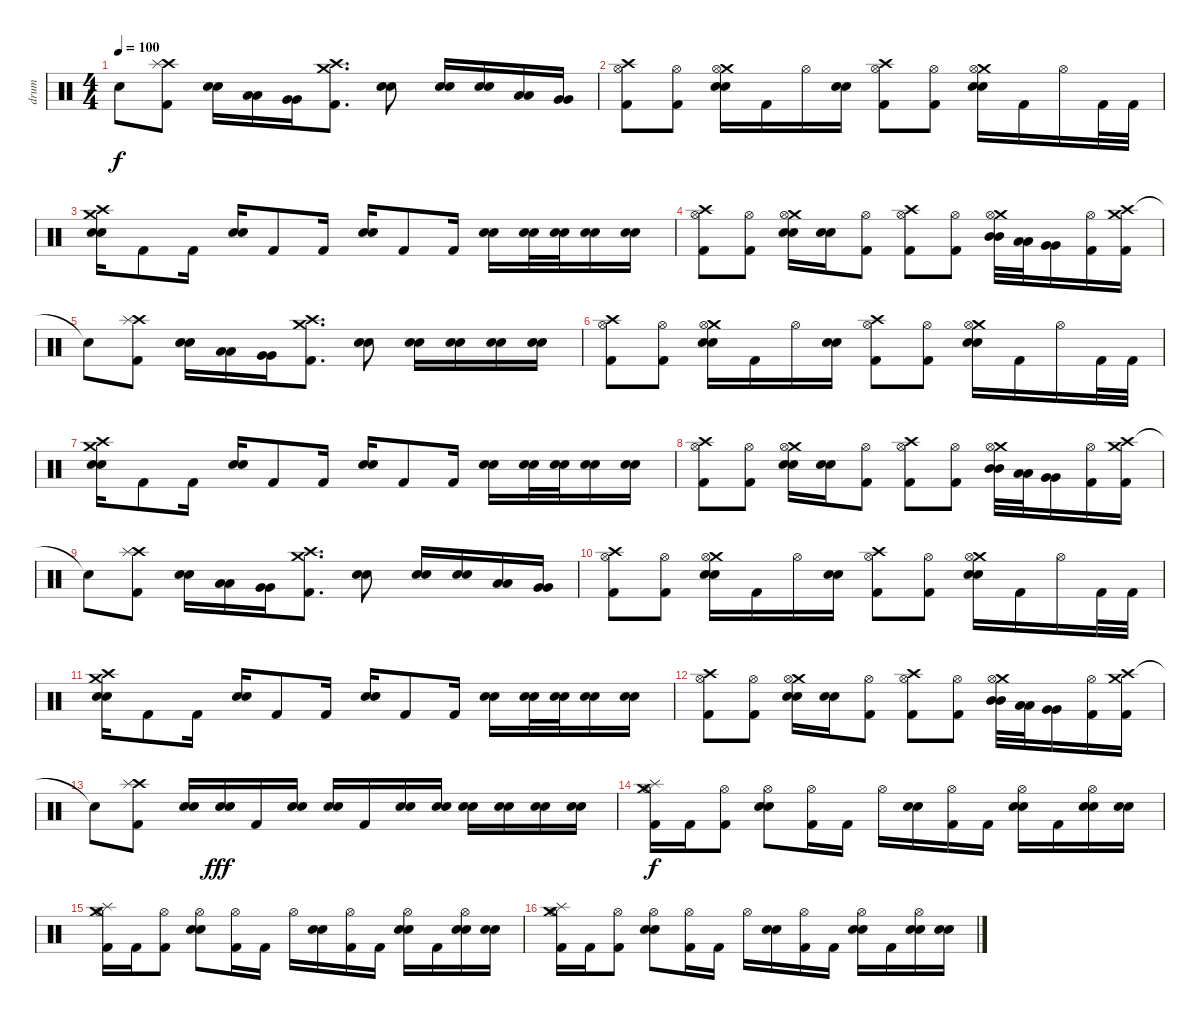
\track ("drum" "drum") {instrument percussion}
\staff {score}
\articulation defaults
\ts (4 4)
\tempo 100
\clef neutral
\ks c "Snare (hit)"{t}.8{dy f}
("Crash high (hit)" "Splash (hit)" "Kick (hit) 2").8 ("Electric Snare (hit)" "Snare (hit) 2").16 ("Low Tom (hit)" "Low Tom (hit)").16 ("Very Low Tom (hit)" "Very Low Tom (hit)").16 ("Crash high (hit)" "Crash medium (hit)" "Kick (hit) 2").8{d} ("Electric Snare (hit)" "Snare (hit) 2").8 ("Electric Snare (hit)" "Snare (hit) 2").16 ("Electric Snare (hit)" "Snare (hit) 2").16 ("Low Tom (hit)" "Low Tom (hit)").16 ("Very Low Tom (hit)" "Very Low Tom (hit)").16 |
("Crash high (hit)" "Hi-Hat (open)" "Kick (hit) 2").8 ("Hi-Hat (open)" "Kick (hit) 2").8 ("Crash medium (hit)" "Hi-Hat (open)" "Electric Snare (hit)" "Snare (hit) 2").16 "Kick (hit) 2".16 "Hi-Hat (open)".16 ("Electric Snare (hit)" "Snare (hit) 2").16 ("Crash high (hit)" "Hi-Hat (open)" "Kick (hit) 2").8 ("Hi-Hat (open)" "Kick (hit) 2").8 ("Crash medium (hit)" "Hi-Hat (open)" "Electric Snare (hit)" "Snare (hit) 2").16 "Kick (hit) 2".16 "Hi-Hat (open)".16 "Kick (hit) 2".32 "Kick (hit) 2".32 |
("Crash medium (hit)" "Crash high (hit)" "Electric Snare (hit)" "Snare (hit) 2").16 "Kick (hit) 2".8 "Kick (hit) 2".16 ("Electric Snare (hit)" "Snare (hit) 2").16 "Kick (hit) 2".8 "Kick (hit) 2".16 ("Electric Snare (hit)" "Snare (hit) 2").16 "Kick (hit) 2".8 "Kick (hit) 2".16 ("Electric Snare (hit)" "Snare (hit) 2").16 ("Electric Snare (hit)" "Snare (hit) 2").32 ("Electric Snare (hit)" "Snare (hit) 2").32 ("Electric Snare (hit)" "Snare (hit) 2").16 ("Electric Snare (hit)" "Snare (hit) 2").16 |
("Crash high (hit)" "Hi-Hat (open)" "Kick (hit) 2").8 ("Hi-Hat (open)" "Kick (hit) 2").8 ("Crash medium (hit)" "Hi-Hat (open)" "Electric Snare (hit)" "Snare (hit) 2").16 ("Electric Snare (hit)" "Snare (hit) 2").16 ("Hi-Hat (open)" "Kick (hit) 2").8 ("Crash high (hit)" "Hi-Hat (open)" "Kick (hit) 2").8 ("Hi-Hat (open)" "Kick (hit) 2").8 ("Crash medium (hit)" "Hi-Hat (open)" "Mid Tom (hit)" "Mid Tom (hit)").32 ("Low Tom (hit)" "Low Tom (hit)").32 ("Very Low Tom (hit)" "Very Low Tom (hit)").16 ("Hi-Hat (open)" "Kick (hit) 2").16 ("Crash high (hit)" "Crash medium (hit)" "Kick (hit) 2").16 |
"Snare (hit)"{t}.8 ("Crash high (hit)" "Splash (hit)" "Kick (hit) 2").8 ("Electric Snare (hit)" "Snare (hit) 2").16 ("Low Tom (hit)" "Low Tom (hit)").16 ("Very Low Tom (hit)" "Very Low Tom (hit)").16 ("Crash high (hit)" "Crash medium (hit)" "Kick (hit) 2").8{d} ("Electric Snare (hit)" "Snare (hit) 2").8 ("Electric Snare (hit)" "Snare (hit) 2").16 ("Electric Snare (hit)" "Snare (hit) 2").16 ("Electric Snare (hit)" "Snare (hit) 2").16 ("Electric Snare (hit)" "Snare (hit) 2").16 |
("Crash high (hit)" "Hi-Hat (open)" "Kick (hit) 2").8 ("Hi-Hat (open)" "Kick (hit) 2").8 ("Crash medium (hit)" "Hi-Hat (open)" "Electric Snare (hit)" "Snare (hit) 2").16 "Kick (hit) 2".16 "Hi-Hat (open)".16 ("Electric Snare (hit)" "Snare (hit) 2").16 ("Crash high (hit)" "Hi-Hat (open)" "Kick (hit) 2").8 ("Hi-Hat (open)" "Kick (hit) 2").8 ("Crash medium (hit)" "Hi-Hat (open)" "Electric Snare (hit)" "Snare (hit) 2").16 "Kick (hit) 2".16 "Hi-Hat (open)".16 "Kick (hit) 2".32 "Kick (hit) 2".32 |
("Crash medium (hit)" "Crash high (hit)" "Electric Snare (hit)" "Snare (hit) 2").16 "Kick (hit) 2".8 "Kick (hit) 2".16 ("Electric Snare (hit)" "Snare (hit) 2").16 "Kick (hit) 2".8 "Kick (hit) 2".16 ("Electric Snare (hit)" "Snare (hit) 2").16 "Kick (hit) 2".8 "Kick (hit) 2".16 ("Electric Snare (hit)" "Snare (hit) 2").16 ("Electric Snare (hit)" "Snare (hit) 2").32 ("Electric Snare (hit)" "Snare (hit) 2").32 ("Electric Snare (hit)" "Snare (hit) 2").16 ("Electric Snare (hit)" "Snare (hit) 2").16 |
("Crash high (hit)" "Hi-Hat (open)" "Kick (hit) 2").8 ("Hi-Hat (open)" "Kick (hit) 2").8 ("Crash medium (hit)" "Hi-Hat (open)" "Electric Snare (hit)" "Snare (hit) 2").16 ("Electric Snare (hit)" "Snare (hit) 2").16 ("Hi-Hat (open)" "Kick (hit) 2").8 ("Crash high (hit)" "Hi-Hat (open)" "Kick (hit) 2").8 ("Hi-Hat (open)" "Kick (hit) 2").8 ("Crash medium (hit)" "Hi-Hat (open)" "Mid Tom (hit)" "Mid Tom (hit)").32 ("Low Tom (hit)" "Low Tom (hit)").32 ("Very Low Tom (hit)" "Very Low Tom (hit)").16 ("Hi-Hat (open)" "Kick (hit) 2").16 ("Crash high (hit)" "Crash medium (hit)" "Kick (hit) 2").16 |
"Snare (hit)"{t}.8 ("Crash high (hit)" "Splash (hit)" "Kick (hit) 2").8 ("Electric Snare (hit)" "Snare (hit) 2").16 ("Low Tom (hit)" "Low Tom (hit)").16 ("Very Low Tom (hit)" "Very Low Tom (hit)").16 ("Crash high (hit)" "Crash medium (hit)" "Kick (hit) 2").8{d} ("Electric Snare (hit)" "Snare (hit) 2").8 ("Electric Snare (hit)" "Snare (hit) 2").16 ("Electric Snare (hit)" "Snare (hit) 2").16 ("Low Tom (hit)" "Low Tom (hit)").16 ("Very Low Tom (hit)" "Very Low Tom (hit)").16 |
("Crash high (hit)" "Hi-Hat (open)" "Kick (hit) 2").8 ("Hi-Hat (open)" "Kick (hit) 2").8 ("Crash medium (hit)" "Hi-Hat (open)" "Electric Snare (hit)" "Snare (hit) 2").16 "Kick (hit) 2".16 "Hi-Hat (open)".16 ("Electric Snare (hit)" "Snare (hit) 2").16 ("Crash high (hit)" "Hi-Hat (open)" "Kick (hit) 2").8 ("Hi-Hat (open)" "Kick (hit) 2").8 ("Crash medium (hit)" "Hi-Hat (open)" "Electric Snare (hit)" "Snare (hit) 2").16 "Kick (hit) 2".16 "Hi-Hat (open)".16 "Kick (hit) 2".32 "Kick (hit) 2".32 |
("Crash medium (hit)" "Crash high (hit)" "Electric Snare (hit)" "Snare (hit) 2").16 "Kick (hit) 2".8 "Kick (hit) 2".16 ("Electric Snare (hit)" "Snare (hit) 2").16 "Kick (hit) 2".8 "Kick (hit) 2".16 ("Electric Snare (hit)" "Snare (hit) 2").16 "Kick (hit) 2".8 "Kick (hit) 2".16 ("Electric Snare (hit)" "Snare (hit) 2").16 ("Electric Snare (hit)" "Snare (hit) 2").32 ("Electric Snare (hit)" "Snare (hit) 2").32 ("Electric Snare (hit)" "Snare (hit) 2").16 ("Electric Snare (hit)" "Snare (hit) 2").16 |
("Crash high (hit)" "Hi-Hat (open)" "Kick (hit) 2").8 ("Hi-Hat (open)" "Kick (hit) 2").8 ("Crash medium (hit)" "Hi-Hat (open)" "Electric Snare (hit)" "Snare (hit) 2").16 ("Electric Snare (hit)" "Snare (hit) 2").16 ("Hi-Hat (open)" "Kick (hit) 2").8 ("Crash high (hit)" "Hi-Hat (open)" "Kick (hit) 2").8 ("Hi-Hat (open)" "Kick (hit) 2").8 ("Crash medium (hit)" "Hi-Hat (open)" "Mid Tom (hit)" "Mid Tom (hit)").32 ("Low Tom (hit)" "Low Tom (hit)").32 ("Very Low Tom (hit)" "Very Low Tom (hit)").16 ("Hi-Hat (open)" "Kick (hit) 2").16 ("Crash high (hit)" "Crash medium (hit)" "Kick (hit) 2").16 |
"Snare (hit)"{t}.8 ("Crash high (hit)" "Splash (hit)" "Kick (hit) 2").8 ("Electric Snare (hit)" "Snare (hit) 2").16 ("Electric Snare (hit)" "Snare (hit) 2").16{dy fff} "Kick (hit) 2".16 ("Electric Snare (hit)" "Snare (hit) 2").16 ("Electric Snare (hit)" "Snare (hit) 2").16 "Kick (hit) 2".16 ("Electric Snare (hit)" "Snare (hit) 2").16 ("Electric Snare (hit)" "Snare (hit) 2").16 ("Electric Snare (hit)" "Snare (hit) 2").16 ("Electric Snare (hit)" "Snare (hit) 2").16 ("Electric Snare (hit)" "Snare (hit) 2").16 ("Electric Snare (hit)" "Snare (hit) 2").16 |
("Crash medium (hit)" "Hi-Hat (open)" "Splash (hit)" "Kick (hit) 2").16{dy f} "Kick (hit) 2".16 ("Hi-Hat (open)" "Kick (hit) 2").8 ("Hi-Hat (open)" "Electric Snare (hit)" "Snare (hit) 2").8 ("Hi-Hat (open)" "Kick (hit) 2").16 "Kick (hit) 2".16 "Hi-Hat (open)".16 ("Electric Snare (hit)" "Snare (hit) 2").16 ("Hi-Hat (open)" "Kick (hit) 2").16 "Kick (hit) 2".16 ("Hi-Hat (open)" "Electric Snare (hit)" "Snare (hit) 2").16 "Kick (hit) 2".16 ("Hi-Hat (open)" "Electric Snare (hit)" "Snare (hit) 2").16 ("Electric Snare (hit)" "Snare (hit) 2").16 |
("Crash medium (hit)" "Hi-Hat (open)" "Splash (hit)" "Kick (hit) 2").16 "Kick (hit) 2".16 ("Hi-Hat (open)" "Kick (hit) 2").8 ("Hi-Hat (open)" "Electric Snare (hit)" "Snare (hit) 2").8 ("Hi-Hat (open)" "Kick (hit) 2").16 "Kick (hit) 2".16 "Hi-Hat (open)".16 ("Electric Snare (hit)" "Snare (hit) 2").16 ("Hi-Hat (open)" "Kick (hit) 2").16 "Kick (hit) 2".16 ("Hi-Hat (open)" "Electric Snare (hit)" "Snare (hit) 2").16 "Kick (hit) 2".16 ("Hi-Hat (open)" "Electric Snare (hit)" "Snare (hit) 2").16 ("Electric Snare (hit)" "Snare (hit) 2").16 |
("Crash medium (hit)" "Hi-Hat (open)" "Splash (hit)" "Kick (hit) 2").16 "Kick (hit) 2".16 ("Hi-Hat (open)" "Kick (hit) 2").8 ("Hi-Hat (open)" "Electric Snare (hit)" "Snare (hit) 2").8 ("Hi-Hat (open)" "Kick (hit) 2").16 "Kick (hit) 2".16 "Hi-Hat (open)".16 ("Electric Snare (hit)" "Snare (hit) 2").16 ("Hi-Hat (open)" "Kick (hit) 2").16 "Kick (hit) 2".16 ("Hi-Hat (open)" "Electric Snare (hit)" "Snare (hit) 2").16 "Kick (hit) 2".16 ("Hi-Hat (open)" "Electric Snare (hit)" "Snare (hit) 2").16 ("Electric Snare (hit)" "Snare (hit) 2").16
